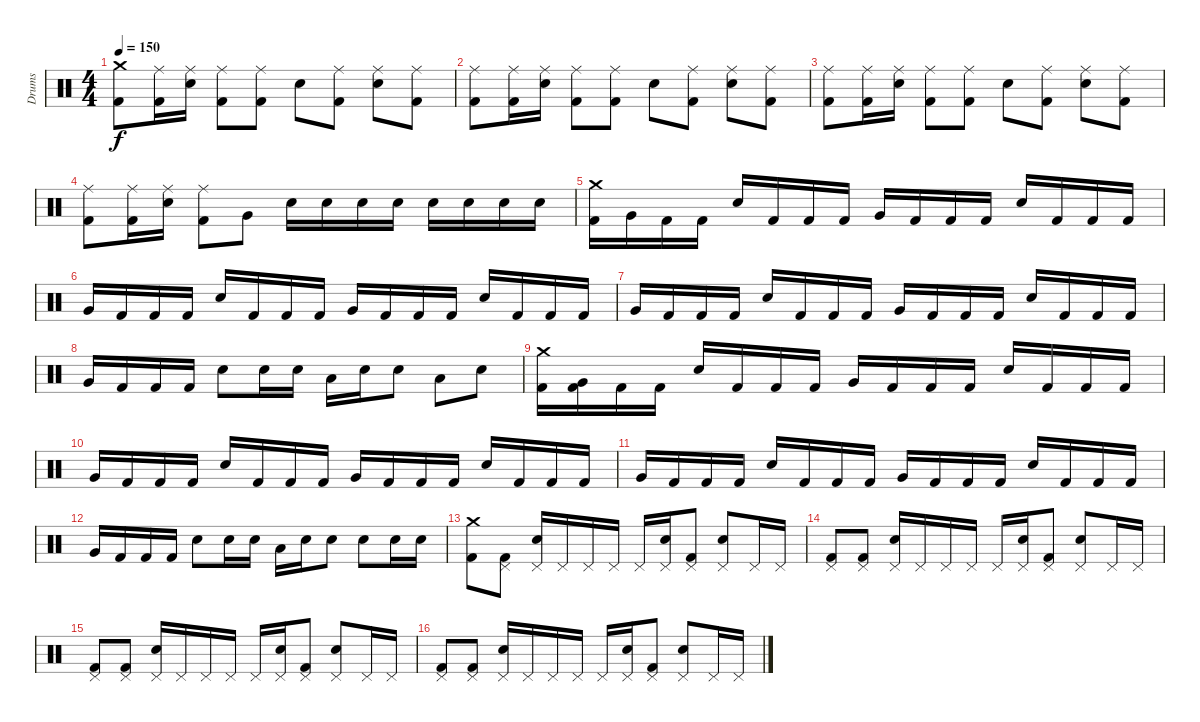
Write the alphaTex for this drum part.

\track ("Drums" "Drums") {instrument percussion}
\staff {score}
\articulation defaults
\ts (4 4)
\tempo 150
\clef neutral
\ks c
("Crash medium (hit)" "Kick (hit) 2").8{dy f} ("Ride (middle)" "Kick (hit) 2").16 ("Ride (middle)" "Electric Snare (hit)").16 ("Ride (middle)" "Kick (hit) 2").8 ("Ride (middle)" "Kick (hit) 2").8 "Electric Snare (hit)".8 ("Ride (middle)" "Kick (hit) 2").8 ("Ride (middle)" "Electric Snare (hit)").8 ("Ride (middle)" "Kick (hit) 2").8 |
("Ride (middle)" "Kick (hit) 2").8 ("Ride (middle)" "Kick (hit) 2").16 ("Ride (middle)" "Electric Snare (hit)").16 ("Ride (middle)" "Kick (hit) 2").8 ("Ride (middle)" "Kick (hit) 2").8 "Electric Snare (hit)".8 ("Ride (middle)" "Kick (hit) 2").8 ("Ride (middle)" "Electric Snare (hit)").8 ("Ride (middle)" "Kick (hit) 2").8 |
("Ride (middle)" "Kick (hit) 2").8 ("Ride (middle)" "Kick (hit) 2").16 ("Ride (middle)" "Electric Snare (hit)").16 ("Ride (middle)" "Kick (hit) 2").8 ("Ride (middle)" "Kick (hit) 2").8 "Electric Snare (hit)".8 ("Ride (middle)" "Kick (hit) 2").8 ("Ride (middle)" "Electric Snare (hit)").8 ("Ride (middle)" "Kick (hit) 2").8 |
("Ride (middle)" "Kick (hit) 2").8 ("Ride (middle)" "Kick (hit) 2").16 ("Ride (middle)" "Electric Snare (hit)").16 ("Ride (middle)" "Kick (hit) 2").8 "Very Low Tom (hit)".8 "Electric Snare (hit)".16 "Electric Snare (hit)".16 "Electric Snare (hit)".16 "Electric Snare (hit)".16 "Electric Snare (hit)".16 "Electric Snare (hit)".16 "Electric Snare (hit)".16 "Electric Snare (hit)".16 |
("Crash medium (hit)" "Kick (hit) 2").16 "Very Low Tom (hit)".16 "Kick (hit) 2".16 "Kick (hit) 2".16 "Electric Snare (hit)".16 "Kick (hit) 2".16 "Kick (hit) 2".16 "Kick (hit) 2".16 "Very Low Tom (hit)".16 "Kick (hit) 2".16 "Kick (hit) 2".16 "Kick (hit) 2".16 "Electric Snare (hit)".16 "Kick (hit) 2".16 "Kick (hit) 2".16 "Kick (hit) 2".16 |
"Very Low Tom (hit)".16 "Kick (hit) 2".16 "Kick (hit) 2".16 "Kick (hit) 2".16 "Electric Snare (hit)".16 "Kick (hit) 2".16 "Kick (hit) 2".16 "Kick (hit) 2".16 "Very Low Tom (hit)".16 "Kick (hit) 2".16 "Kick (hit) 2".16 "Kick (hit) 2".16 "Electric Snare (hit)".16 "Kick (hit) 2".16 "Kick (hit) 2".16 "Kick (hit) 2".16 |
"Very Low Tom (hit)".16 "Kick (hit) 2".16 "Kick (hit) 2".16 "Kick (hit) 2".16 "Electric Snare (hit)".16 "Kick (hit) 2".16 "Kick (hit) 2".16 "Kick (hit) 2".16 "Very Low Tom (hit)".16 "Kick (hit) 2".16 "Kick (hit) 2".16 "Kick (hit) 2".16 "Electric Snare (hit)".16 "Kick (hit) 2".16 "Kick (hit) 2".16 "Kick (hit) 2".16 |
"Very Low Tom (hit)".16 "Kick (hit) 2".16 "Kick (hit) 2".16 "Kick (hit) 2".16 "Electric Snare (hit)".8 "Electric Snare (hit)".16 "Electric Snare (hit)".16 "Low Tom (hit)".16 "Electric Snare (hit)".16 "Electric Snare (hit)".8 "Low Tom (hit)".8 "Electric Snare (hit)".8 |
("Crash medium (hit)" "Kick (hit) 2").16 ("Very Low Tom (hit)" "Kick (hit) 2").16 "Kick (hit) 2".16 "Kick (hit) 2".16 "Electric Snare (hit)".16 "Kick (hit) 2".16 "Kick (hit) 2".16 "Kick (hit) 2".16 "Very Low Tom (hit)".16 "Kick (hit) 2".16 "Kick (hit) 2".16 "Kick (hit) 2".16 "Electric Snare (hit)".16 "Kick (hit) 2".16 "Kick (hit) 2".16 "Kick (hit) 2".16 |
"Very Low Tom (hit)".16 "Kick (hit) 2".16 "Kick (hit) 2".16 "Kick (hit) 2".16 "Electric Snare (hit)".16 "Kick (hit) 2".16 "Kick (hit) 2".16 "Kick (hit) 2".16 "Very Low Tom (hit)".16 "Kick (hit) 2".16 "Kick (hit) 2".16 "Kick (hit) 2".16 "Electric Snare (hit)".16 "Kick (hit) 2".16 "Kick (hit) 2".16 "Kick (hit) 2".16 |
"Very Low Tom (hit)".16 "Kick (hit) 2".16 "Kick (hit) 2".16 "Kick (hit) 2".16 "Electric Snare (hit)".16 "Kick (hit) 2".16 "Kick (hit) 2".16 "Kick (hit) 2".16 "Very Low Tom (hit)".16 "Kick (hit) 2".16 "Kick (hit) 2".16 "Kick (hit) 2".16 "Electric Snare (hit)".16 "Kick (hit) 2".16 "Kick (hit) 2".16 "Kick (hit) 2".16 |
"Very Low Tom (hit)".16 "Kick (hit) 2".16 "Kick (hit) 2".16 "Kick (hit) 2".16 "Electric Snare (hit)".8 "Electric Snare (hit)".16 "Electric Snare (hit)".16 "Low Tom (hit)".16 "Electric Snare (hit)".16 "Electric Snare (hit)".8 "Electric Snare (hit)".8 "Electric Snare (hit)".16 "Electric Snare (hit)".16 |
("Crash medium (hit)" "Kick (hit) 2").8 ("Pedal Hi-Hat (hit)" "Kick (hit) 2").8 ("Pedal Hi-Hat (hit)" "Electric Snare (hit)").16 "Pedal Hi-Hat (hit)".16 "Pedal Hi-Hat (hit)".16 "Pedal Hi-Hat (hit)".16 "Pedal Hi-Hat (hit)".16 ("Pedal Hi-Hat (hit)" "Electric Snare (hit)").16 ("Pedal Hi-Hat (hit)" "Kick (hit) 2").8 ("Pedal Hi-Hat (hit)" "Electric Snare (hit)").8 "Pedal Hi-Hat (hit)".16 "Pedal Hi-Hat (hit)".16 |
("Pedal Hi-Hat (hit)" "Kick (hit) 2").8 ("Pedal Hi-Hat (hit)" "Kick (hit) 2").8 ("Pedal Hi-Hat (hit)" "Electric Snare (hit)").16 "Pedal Hi-Hat (hit)".16 "Pedal Hi-Hat (hit)".16 "Pedal Hi-Hat (hit)".16 "Pedal Hi-Hat (hit)".16 ("Pedal Hi-Hat (hit)" "Electric Snare (hit)").16 ("Pedal Hi-Hat (hit)" "Kick (hit) 2").8 ("Pedal Hi-Hat (hit)" "Electric Snare (hit)").8 "Pedal Hi-Hat (hit)".16 "Pedal Hi-Hat (hit)".16 |
("Pedal Hi-Hat (hit)" "Kick (hit) 2").8 ("Pedal Hi-Hat (hit)" "Kick (hit) 2").8 ("Pedal Hi-Hat (hit)" "Electric Snare (hit)").16 "Pedal Hi-Hat (hit)".16 "Pedal Hi-Hat (hit)".16 "Pedal Hi-Hat (hit)".16 "Pedal Hi-Hat (hit)".16 ("Pedal Hi-Hat (hit)" "Electric Snare (hit)").16 ("Pedal Hi-Hat (hit)" "Kick (hit) 2").8 ("Pedal Hi-Hat (hit)" "Electric Snare (hit)").8 "Pedal Hi-Hat (hit)".16 "Pedal Hi-Hat (hit)".16 |
("Pedal Hi-Hat (hit)" "Kick (hit) 2").8 ("Pedal Hi-Hat (hit)" "Kick (hit) 2").8 ("Pedal Hi-Hat (hit)" "Electric Snare (hit)").16 "Pedal Hi-Hat (hit)".16 "Pedal Hi-Hat (hit)".16 "Pedal Hi-Hat (hit)".16 "Pedal Hi-Hat (hit)".16 ("Pedal Hi-Hat (hit)" "Electric Snare (hit)").16 ("Pedal Hi-Hat (hit)" "Kick (hit) 2").8 ("Pedal Hi-Hat (hit)" "Electric Snare (hit)").8 "Pedal Hi-Hat (hit)".16 "Pedal Hi-Hat (hit)".16
